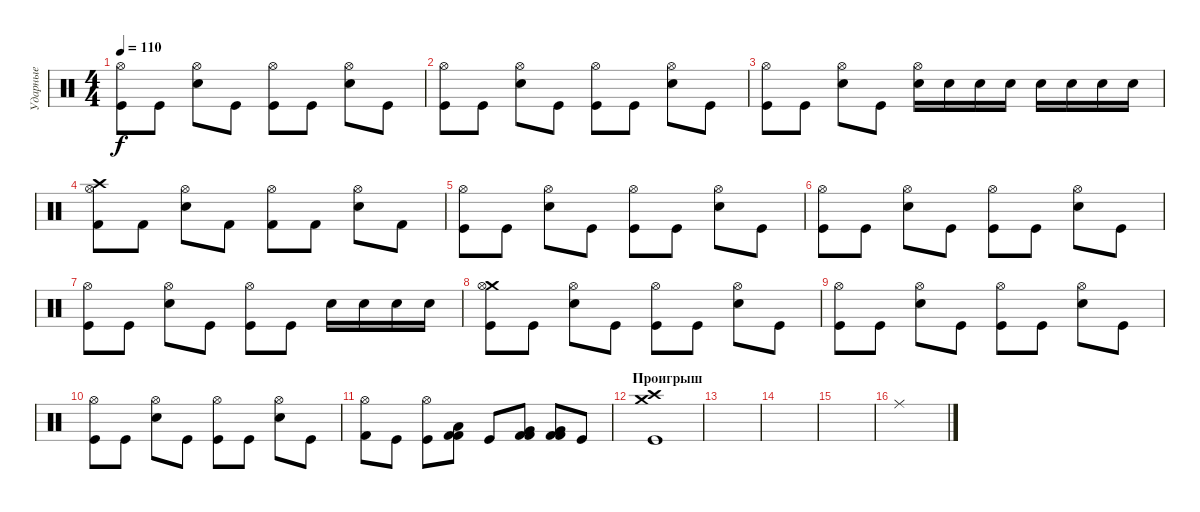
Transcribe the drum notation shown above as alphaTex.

\track ("Ударные" "Ударные") {instrument percussion}
\staff {score}
\articulation defaults
\ts (4 4)
\tempo 110
\clef neutral
\ks c
("Hi-Hat (open)" "Kick (hit)").8{dy f} "Kick (hit)".8 ("Hi-Hat (open)" "Electric Snare (hit)").8 "Kick (hit)".8 ("Hi-Hat (open)" "Kick (hit)").8 "Kick (hit)".8 ("Hi-Hat (open)" "Electric Snare (hit)").8 "Kick (hit)".8 |
("Hi-Hat (open)" "Kick (hit)").8 "Kick (hit)".8 ("Hi-Hat (open)" "Electric Snare (hit)").8 "Kick (hit)".8 ("Hi-Hat (open)" "Kick (hit)").8 "Kick (hit)".8 ("Hi-Hat (open)" "Electric Snare (hit)").8 "Kick (hit)".8 |
("Hi-Hat (open)" "Kick (hit)").8 "Kick (hit)".8 ("Hi-Hat (open)" "Electric Snare (hit)").8 "Kick (hit)".8 ("Hi-Hat (open)" "Electric Snare (hit)").16 "Electric Snare (hit)".16 "Electric Snare (hit)".16 "Electric Snare (hit)".16 "Electric Snare (hit)".16 "Electric Snare (hit)".16 "Electric Snare (hit)".16 "Electric Snare (hit)".16 |
("Crash high (hit)" "Hi-Hat (open)" "Kick (hit) 2").8 "Kick (hit) 2".8 ("Hi-Hat (open)" "Electric Snare (hit)").8 "Kick (hit) 2".8 ("Hi-Hat (open)" "Kick (hit) 2").8 "Kick (hit) 2".8 ("Hi-Hat (open)" "Electric Snare (hit)").8 "Kick (hit) 2".8 |
("Hi-Hat (open)" "Kick (hit)").8 "Kick (hit)".8 ("Hi-Hat (open)" "Electric Snare (hit)").8 "Kick (hit)".8 ("Hi-Hat (open)" "Kick (hit)").8 "Kick (hit)".8 ("Hi-Hat (open)" "Electric Snare (hit)").8 "Kick (hit)".8 |
("Hi-Hat (open)" "Kick (hit)").8 "Kick (hit)".8 ("Hi-Hat (open)" "Electric Snare (hit)").8 "Kick (hit)".8 ("Hi-Hat (open)" "Kick (hit)").8 "Kick (hit)".8 ("Hi-Hat (open)" "Electric Snare (hit)").8 "Kick (hit)".8 |
("Hi-Hat (open)" "Kick (hit)").8 "Kick (hit)".8 ("Hi-Hat (open)" "Electric Snare (hit)").8 "Kick (hit)".8 ("Hi-Hat (open)" "Kick (hit)").8 "Kick (hit)".8 "Electric Snare (hit)".16 "Electric Snare (hit)".16 "Electric Snare (hit)".16 "Electric Snare (hit)".16 |
("Crash medium (hit)" "Hi-Hat (open)" "Kick (hit)").8 "Kick (hit)".8 ("Hi-Hat (open)" "Electric Snare (hit)").8 "Kick (hit)".8 ("Hi-Hat (open)" "Kick (hit)").8 "Kick (hit)".8 ("Hi-Hat (open)" "Electric Snare (hit)").8 "Kick (hit)".8 |
("Hi-Hat (open)" "Kick (hit)").8 "Kick (hit)".8 ("Hi-Hat (open)" "Electric Snare (hit)").8 "Kick (hit)".8 ("Hi-Hat (open)" "Kick (hit)").8 "Kick (hit)".8 ("Hi-Hat (open)" "Electric Snare (hit)").8 "Kick (hit)".8 |
("Hi-Hat (open)" "Kick (hit)").8 "Kick (hit)".8 ("Hi-Hat (open)" "Electric Snare (hit)").8 "Kick (hit)".8 ("Hi-Hat (open)" "Kick (hit)").8 "Kick (hit)".8 ("Hi-Hat (open)" "Electric Snare (hit)").8 "Kick (hit)".8 |
("Hi-Hat (open)" "Kick (hit) 2").8 "Kick (hit)".8 ("Hi-Hat (open)" "Kick (hit)").8 ("Low Floor Tom (hit)" "Kick (hit) 2" "Kick (hit) 2").8 "Kick (hit)".8 ("Very Low Tom (hit)" "Kick (hit) 2" "Kick (hit) 2").8 ("Very Low Tom (hit)" "Kick (hit) 2" "Kick (hit) 2").8 "Kick (hit)".8 |
\section ("" "Проигрыш")
("Crash high (hit)" "Crash medium (hit)" "Kick (hit)").1 |
|
|
|
"Ride (middle)".1
